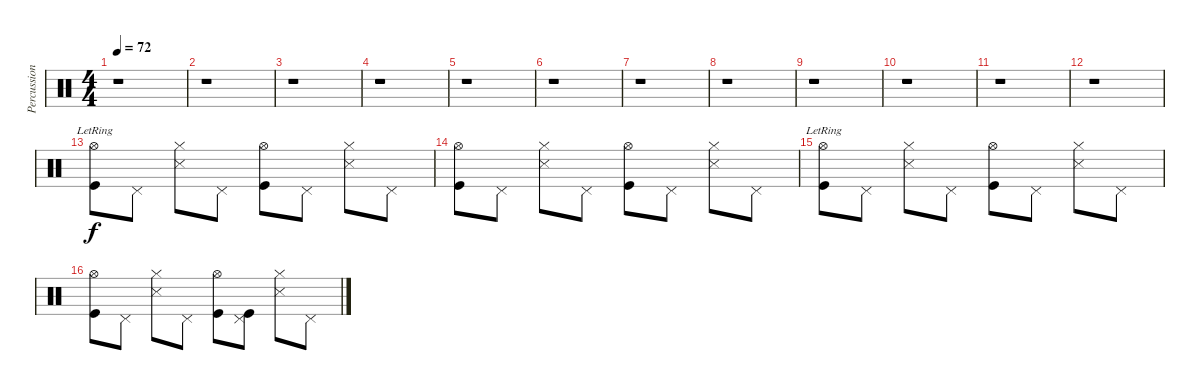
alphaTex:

\track ("Percussion" "Percussion") {instrument percussion}
\staff {score}
\articulation defaults
\ts (4 4)
\tempo 72
\clef neutral
\ks c
r.1{dy f} |
r.1 |
r.1 |
r.1 |
r.1 |
r.1 |
r.1 |
r.1 |
r.1 |
r.1 |
r.1 |
r.1 |
("Hi-Hat (open)"{lr} "Kick (hit)").8 "Pedal Hi-Hat (hit)".8 ("Hi-Hat (closed)" "Snare (side stick) 3").8 "Pedal Hi-Hat (hit)".8 ("Hi-Hat (open)" "Kick (hit)").8 "Pedal Hi-Hat (hit)".8 ("Hi-Hat (closed)" "Snare (side stick) 3").8 "Pedal Hi-Hat (hit)".8 |
("Hi-Hat (open)" "Kick (hit)").8 "Pedal Hi-Hat (hit)".8 ("Hi-Hat (closed)" "Snare (side stick) 3").8 "Pedal Hi-Hat (hit)".8 ("Hi-Hat (open)" "Kick (hit)").8 "Pedal Hi-Hat (hit)".8 ("Hi-Hat (closed)" "Snare (side stick) 3").8 "Pedal Hi-Hat (hit)".8 |
("Hi-Hat (open)"{lr} "Kick (hit)").8 "Pedal Hi-Hat (hit)".8 ("Hi-Hat (closed)" "Snare (side stick) 3").8 "Pedal Hi-Hat (hit)".8 ("Hi-Hat (open)" "Kick (hit)").8 "Pedal Hi-Hat (hit)".8 ("Hi-Hat (closed)" "Snare (side stick) 3").8 "Pedal Hi-Hat (hit)".8 |
("Hi-Hat (open)" "Kick (hit)").8 "Pedal Hi-Hat (hit)".8 ("Hi-Hat (closed)" "Snare (side stick) 3").8 "Pedal Hi-Hat (hit)".8 ("Hi-Hat (open)" "Kick (hit)").8 ("Pedal Hi-Hat (hit)" "Kick (hit)").8 ("Hi-Hat (closed)" "Snare (side stick) 3").8 "Pedal Hi-Hat (hit)".8
